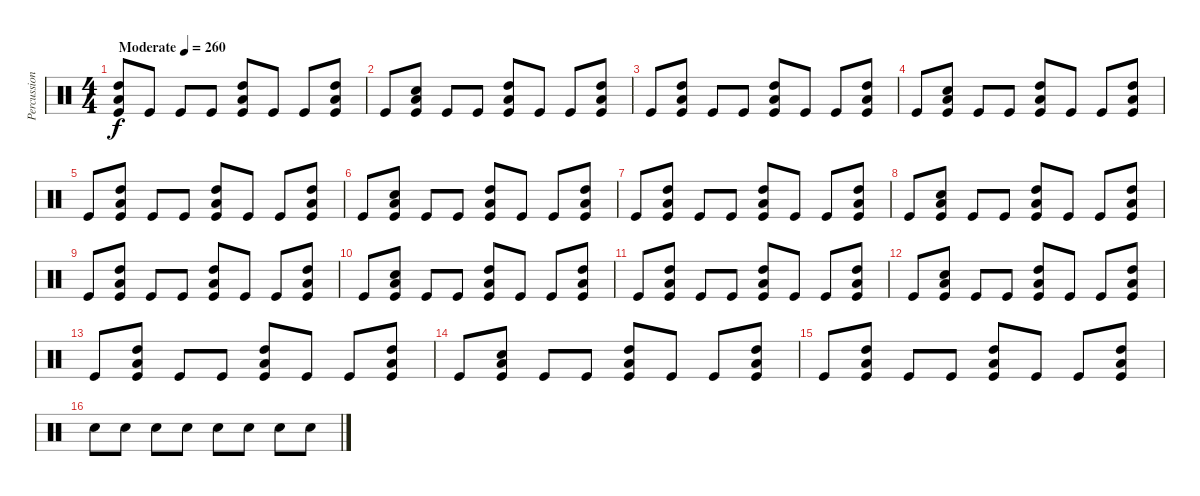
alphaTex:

\track ("Percussion" "Percussion") {instrument percussion}
\staff {score}
\articulation defaults
\ts (4 4)
\tempo (260 "Moderate")
\clef neutral
\ks c
("Kick (hit)" "High Tom (hit)" "Low Tom (hit)").8{dy f} "Kick (hit)".8 "Kick (hit)".8 "Kick (hit)".8 ("Kick (hit)" "High Tom (hit)" "Low Tom (hit)").8 "Kick (hit)".8 "Kick (hit)".8 ("Kick (hit)" "High Tom (hit)" "Low Tom (hit)").8 |
"Kick (hit)".8 ("Kick (hit)" "Snare (hit) 2" "Low Tom (hit)").8 "Kick (hit)".8 "Kick (hit)".8 ("Kick (hit)" "High Tom (hit)" "Low Tom (hit)").8 "Kick (hit)".8 "Kick (hit)".8 ("Kick (hit)" "High Tom (hit)" "Low Tom (hit)").8 |
"Kick (hit)".8 ("Kick (hit)" "High Tom (hit)" "Low Tom (hit)").8 "Kick (hit)".8 "Kick (hit)".8 ("Kick (hit)" "High Tom (hit)" "Low Tom (hit)").8 "Kick (hit)".8 "Kick (hit)".8 ("Kick (hit)" "High Tom (hit)" "Low Tom (hit)").8 |
"Kick (hit)".8 ("Kick (hit)" "Snare (hit) 2" "Low Tom (hit)").8 "Kick (hit)".8 "Kick (hit)".8 ("Kick (hit)" "High Tom (hit)" "Low Tom (hit)").8 "Kick (hit)".8 "Kick (hit)".8 ("Kick (hit)" "High Tom (hit)" "Low Tom (hit)").8 |
"Kick (hit)".8 ("Kick (hit)" "High Tom (hit)" "Low Tom (hit)").8 "Kick (hit)".8 "Kick (hit)".8 ("Kick (hit)" "High Tom (hit)" "Low Tom (hit)").8 "Kick (hit)".8 "Kick (hit)".8 ("Kick (hit)" "High Tom (hit)" "Low Tom (hit)").8 |
"Kick (hit)".8 ("Kick (hit)" "Snare (hit) 2" "Low Tom (hit)").8 "Kick (hit)".8 "Kick (hit)".8 ("Kick (hit)" "High Tom (hit)" "Low Tom (hit)").8 "Kick (hit)".8 "Kick (hit)".8 ("Kick (hit)" "High Tom (hit)" "Low Tom (hit)").8 |
"Kick (hit)".8 ("Kick (hit)" "High Tom (hit)" "Low Tom (hit)").8 "Kick (hit)".8 "Kick (hit)".8 ("Kick (hit)" "High Tom (hit)" "Low Tom (hit)").8 "Kick (hit)".8 "Kick (hit)".8 ("Kick (hit)" "High Tom (hit)" "Low Tom (hit)").8 |
"Kick (hit)".8 ("Kick (hit)" "Snare (hit) 2" "Low Tom (hit)").8 "Kick (hit)".8 "Kick (hit)".8 ("Kick (hit)" "High Tom (hit)" "Low Tom (hit)").8 "Kick (hit)".8 "Kick (hit)".8 ("Kick (hit)" "High Tom (hit)" "Low Tom (hit)").8 |
"Kick (hit)".8 ("Kick (hit)" "High Tom (hit)" "Low Tom (hit)").8 "Kick (hit)".8 "Kick (hit)".8 ("Kick (hit)" "High Tom (hit)" "Low Tom (hit)").8 "Kick (hit)".8 "Kick (hit)".8 ("Kick (hit)" "High Tom (hit)" "Low Tom (hit)").8 |
"Kick (hit)".8 ("Kick (hit)" "Snare (hit) 2" "Low Tom (hit)").8 "Kick (hit)".8 "Kick (hit)".8 ("Kick (hit)" "High Tom (hit)" "Low Tom (hit)").8 "Kick (hit)".8 "Kick (hit)".8 ("Kick (hit)" "High Tom (hit)" "Low Tom (hit)").8 |
"Kick (hit)".8 ("Kick (hit)" "High Tom (hit)" "Low Tom (hit)").8 "Kick (hit)".8 "Kick (hit)".8 ("Kick (hit)" "High Tom (hit)" "Low Tom (hit)").8 "Kick (hit)".8 "Kick (hit)".8 ("Kick (hit)" "High Tom (hit)" "Low Tom (hit)").8 |
"Kick (hit)".8 ("Kick (hit)" "Snare (hit) 2" "Low Tom (hit)").8 "Kick (hit)".8 "Kick (hit)".8 ("Kick (hit)" "High Tom (hit)" "Low Tom (hit)").8 "Kick (hit)".8 "Kick (hit)".8 ("Kick (hit)" "High Tom (hit)" "Low Tom (hit)").8 |
"Kick (hit)".8 ("Kick (hit)" "High Tom (hit)" "Low Tom (hit)").8 "Kick (hit)".8 "Kick (hit)".8 ("Kick (hit)" "High Tom (hit)" "Low Tom (hit)").8 "Kick (hit)".8 "Kick (hit)".8 ("Kick (hit)" "High Tom (hit)" "Low Tom (hit)").8 |
"Kick (hit)".8 ("Kick (hit)" "Snare (hit) 2" "Low Tom (hit)").8 "Kick (hit)".8 "Kick (hit)".8 ("Kick (hit)" "High Tom (hit)" "Low Tom (hit)").8 "Kick (hit)".8 "Kick (hit)".8 ("Kick (hit)" "High Tom (hit)" "Low Tom (hit)").8 |
"Kick (hit)".8 ("Kick (hit)" "High Tom (hit)" "Low Tom (hit)").8 "Kick (hit)".8 "Kick (hit)".8 ("Kick (hit)" "High Tom (hit)" "Low Tom (hit)").8 "Kick (hit)".8 "Kick (hit)".8 ("Kick (hit)" "High Tom (hit)" "Low Tom (hit)").8 |
"Snare (hit) 2".8 "Snare (hit) 2".8 "Snare (hit) 2".8 "Snare (hit) 2".8 "Snare (hit) 2".8 "Snare (hit) 2".8 "Snare (hit) 2".8 "Snare (hit) 2".8
